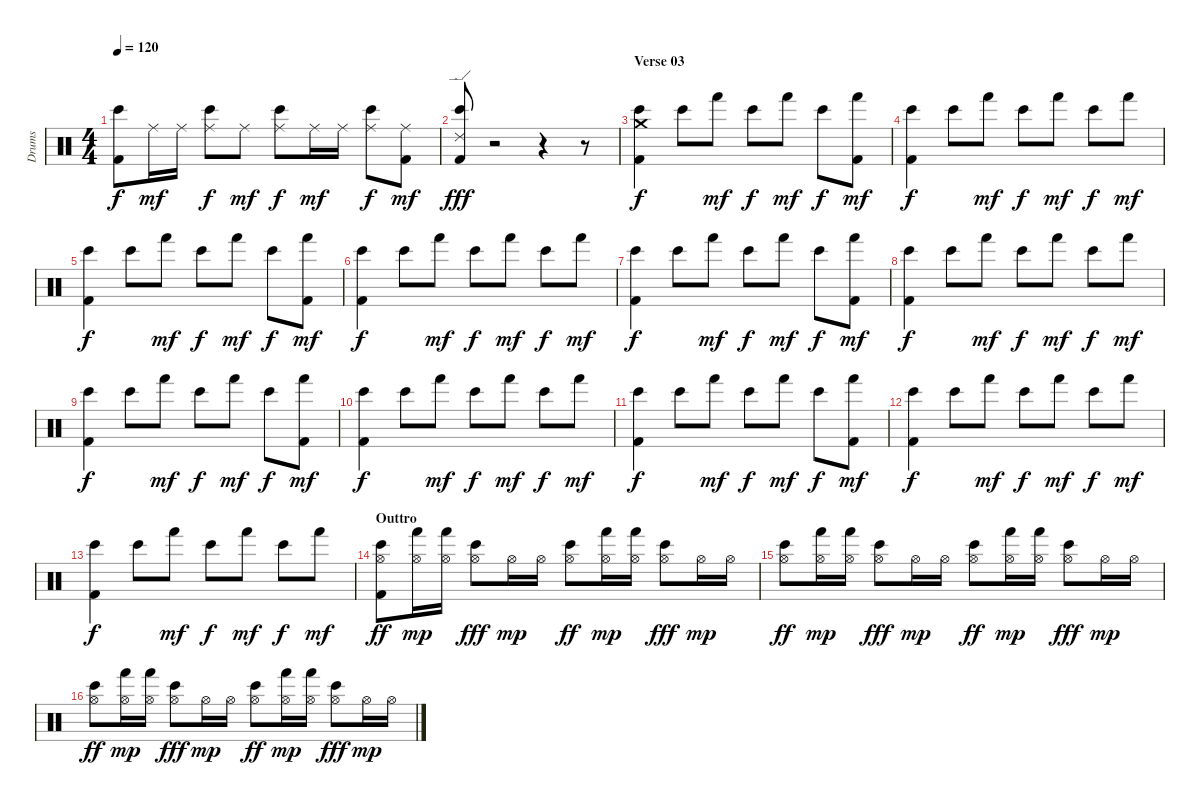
\track ("Drums" "Drums") {instrument percussion}
\staff {score}
\articulation defaults
\ts (4 4)
\tempo 120
\clef neutral
\ks c
("Kick (hit) 2" "Bongo High (hit)").8{dy f} "Ride (middle)".16{dy mf} "Ride (middle)".16 ("Bongo High (hit)" "Ride (middle)").8{dy f} "Ride (middle)".8{dy mf} ("Bongo High (hit)" "Ride (middle)").8{dy f} "Ride (middle)".16{dy mf} "Ride (middle)".16 ("Bongo High (hit)" "Ride (middle)").8{dy f} ("Kick (hit) 2" "Ride (middle)").8{dy mf} |
("Kick (hit) 2" "Bongo High (hit)" "Ride (edge) 2").8{dy fff} r.2 r.4 r.8 |
\section ("" "Verse 03")
("Kick (hit) 2" "Bongo High (hit)" "Crash medium (hit)").4{dy f} "Bongo High (hit)".8 "Hand (hit)".8{dy mf} "Bongo High (hit)".8{dy f} "Hand (hit)".8{dy mf} "Bongo High (hit)".8{dy f} ("Kick (hit) 2" "Hand (hit)").8{dy mf} |
("Kick (hit) 2" "Bongo High (hit)").4{dy f} "Bongo High (hit)".8 "Hand (hit)".8{dy mf} "Bongo High (hit)".8{dy f} "Hand (hit)".8{dy mf} "Bongo High (hit)".8{dy f} "Hand (hit)".8{dy mf} |
("Kick (hit) 2" "Bongo High (hit)").4{dy f} "Bongo High (hit)".8 "Hand (hit)".8{dy mf} "Bongo High (hit)".8{dy f} "Hand (hit)".8{dy mf} "Bongo High (hit)".8{dy f} ("Kick (hit) 2" "Hand (hit)").8{dy mf} |
("Kick (hit) 2" "Bongo High (hit)").4{dy f} "Bongo High (hit)".8 "Hand (hit)".8{dy mf} "Bongo High (hit)".8{dy f} "Hand (hit)".8{dy mf} "Bongo High (hit)".8{dy f} "Hand (hit)".8{dy mf} |
("Kick (hit) 2" "Bongo High (hit)").4{dy f} "Bongo High (hit)".8 "Hand (hit)".8{dy mf} "Bongo High (hit)".8{dy f} "Hand (hit)".8{dy mf} "Bongo High (hit)".8{dy f} ("Kick (hit) 2" "Hand (hit)").8{dy mf} |
("Kick (hit) 2" "Bongo High (hit)").4{dy f} "Bongo High (hit)".8 "Hand (hit)".8{dy mf} "Bongo High (hit)".8{dy f} "Hand (hit)".8{dy mf} "Bongo High (hit)".8{dy f} "Hand (hit)".8{dy mf} |
("Kick (hit) 2" "Bongo High (hit)").4{dy f} "Bongo High (hit)".8 "Hand (hit)".8{dy mf} "Bongo High (hit)".8{dy f} "Hand (hit)".8{dy mf} "Bongo High (hit)".8{dy f} ("Kick (hit) 2" "Hand (hit)").8{dy mf} |
("Kick (hit) 2" "Bongo High (hit)").4{dy f} "Bongo High (hit)".8 "Hand (hit)".8{dy mf} "Bongo High (hit)".8{dy f} "Hand (hit)".8{dy mf} "Bongo High (hit)".8{dy f} "Hand (hit)".8{dy mf} |
("Kick (hit) 2" "Bongo High (hit)").4{dy f} "Bongo High (hit)".8 "Hand (hit)".8{dy mf} "Bongo High (hit)".8{dy f} "Hand (hit)".8{dy mf} "Bongo High (hit)".8{dy f} ("Kick (hit) 2" "Hand (hit)").8{dy mf} |
("Kick (hit) 2" "Bongo High (hit)").4{dy f} "Bongo High (hit)".8 "Hand (hit)".8{dy mf} "Bongo High (hit)".8{dy f} "Hand (hit)".8{dy mf} "Bongo High (hit)".8{dy f} "Hand (hit)".8{dy mf} |
("Kick (hit) 2" "Bongo High (hit)").4{dy f} "Bongo High (hit)".8 "Hand (hit)".8{dy mf} "Bongo High (hit)".8{dy f} "Hand (hit)".8{dy mf} "Bongo High (hit)".8{dy f} "Hand (hit)".8{dy mf} |
\section ("" "Outtro")
("Hi-Hat (open)" "Kick (hit) 2" "Bongo High (hit)").8{dy ff} ("Hi-Hat (open)" "Hand (hit)").16{dy mp} ("Hi-Hat (open)" "Hand (hit)").16 ("Hi-Hat (open)" "Bongo High (hit)").8{dy fff} "Hi-Hat (open)".16{dy mp} "Hi-Hat (open)".16 ("Hi-Hat (open)" "Bongo High (hit)").8{dy ff} ("Hi-Hat (open)" "Hand (hit)").16{dy mp} ("Hi-Hat (open)" "Hand (hit)").16 ("Hi-Hat (open)" "Bongo High (hit)").8{dy fff} "Hi-Hat (open)".16{dy mp} "Hi-Hat (open)".16 |
("Hi-Hat (open)" "Bongo High (hit)").8{dy ff} ("Hi-Hat (open)" "Hand (hit)").16{dy mp} ("Hi-Hat (open)" "Hand (hit)").16 ("Hi-Hat (open)" "Bongo High (hit)").8{dy fff} "Hi-Hat (open)".16{dy mp} "Hi-Hat (open)".16 ("Hi-Hat (open)" "Bongo High (hit)").8{dy ff} ("Hi-Hat (open)" "Hand (hit)").16{dy mp} ("Hi-Hat (open)" "Hand (hit)").16 ("Hi-Hat (open)" "Bongo High (hit)").8{dy fff} "Hi-Hat (open)".16{dy mp} "Hi-Hat (open)".16 |
("Hi-Hat (open)" "Bongo High (hit)").8{dy ff} ("Hi-Hat (open)" "Hand (hit)").16{dy mp} ("Hi-Hat (open)" "Hand (hit)").16 ("Hi-Hat (open)" "Bongo High (hit)").8{dy fff} "Hi-Hat (open)".16{dy mp} "Hi-Hat (open)".16 ("Hi-Hat (open)" "Bongo High (hit)").8{dy ff} ("Hi-Hat (open)" "Hand (hit)").16{dy mp} ("Hi-Hat (open)" "Hand (hit)").16 ("Hi-Hat (open)" "Bongo High (hit)").8{dy fff} "Hi-Hat (open)".16{dy mp} "Hi-Hat (open)".16
